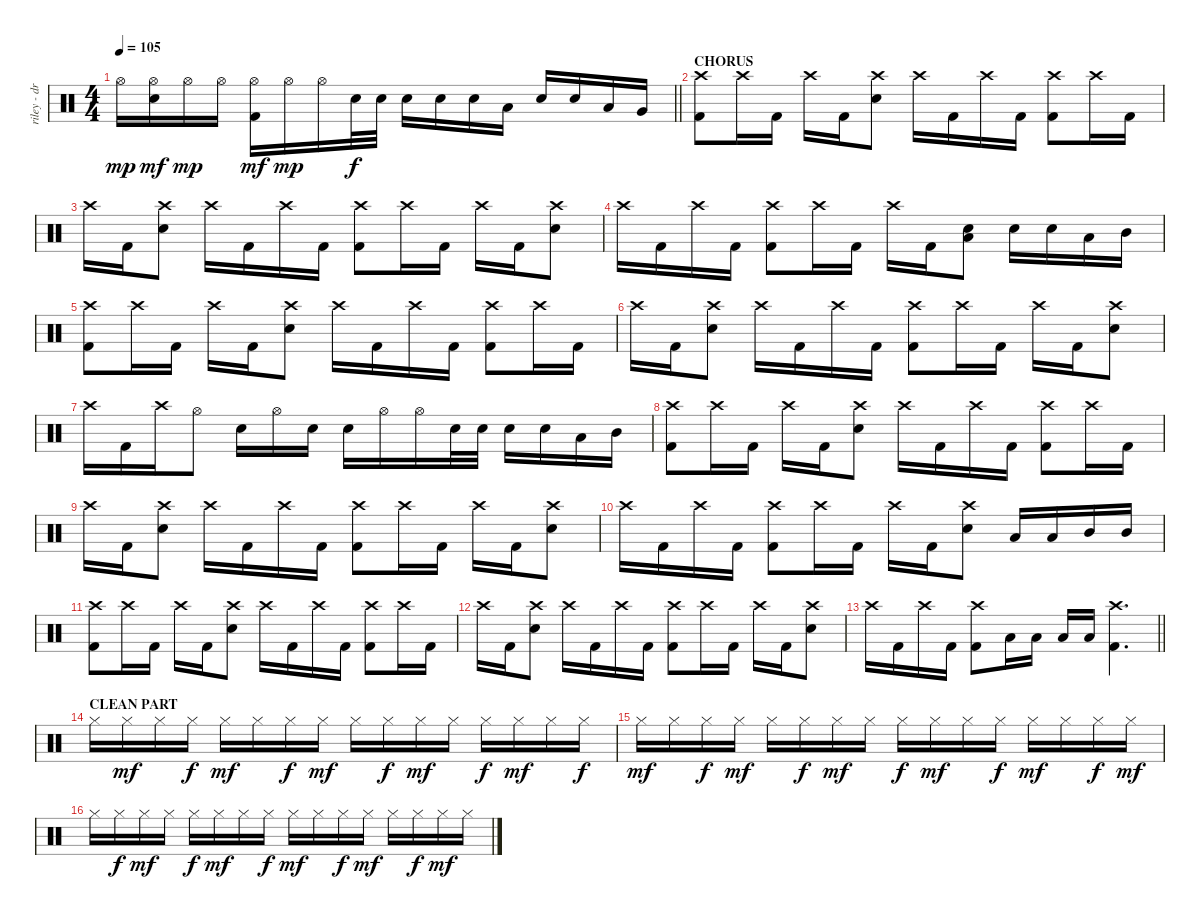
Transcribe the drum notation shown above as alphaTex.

\track ("riley - drums" "riley - dr") {instrument percussion}
\staff {score}
\articulation defaults
\ts (4 4)
\tempo 105
\clef neutral
\barLineRight lightlight
\ks c "Hi-Hat (open)".16{dy mp}
("Electric Snare (hit)" "Hi-Hat (open)").16{dy mf} "Hi-Hat (open)".16{dy mp} "Hi-Hat (open)".16 ("Kick (hit) 2" "Hi-Hat (open)").16{dy mf} "Hi-Hat (open)".16{dy mp} "Hi-Hat (open)".16 "Electric Snare (hit)".32{dy f} "Electric Snare (hit)".32 "Electric Snare (hit)".16 "Electric Snare (hit)".16 "Electric Snare (hit)".16 "Low Tom (hit)".16 "Electric Snare (hit)".16 "Electric Snare (hit)".16 "Low Tom (hit)".16 "Very Low Tom (hit)".16 |
\section ("" "CHORUS")
("Kick (hit) 2" "Crash high (hit)").8 "Crash high (hit)".16 "Kick (hit) 2".16 "Crash high (hit)".16 "Kick (hit) 2".16 ("Electric Snare (hit)" "Crash high (hit)").8 "Crash high (hit)".16 "Kick (hit) 2".16 "Crash high (hit)".16 "Kick (hit) 2".16 ("Kick (hit) 2" "Crash high (hit)").8 "Crash high (hit)".16 "Kick (hit) 2".16 |
"Crash high (hit)".16 "Kick (hit) 2".16 ("Electric Snare (hit)" "Crash high (hit)").8 "Crash high (hit)".16 "Kick (hit) 2".16 "Crash high (hit)".16 "Kick (hit) 2".16 ("Kick (hit) 2" "Crash high (hit)").8 "Crash high (hit)".16 "Kick (hit) 2".16 "Crash high (hit)".16 "Kick (hit) 2".16 ("Electric Snare (hit)" "Crash high (hit)").8 |
"Crash high (hit)".16 "Kick (hit) 2".16 "Crash high (hit)".16 "Kick (hit) 2".16 ("Kick (hit) 2" "Crash high (hit)").8 "Crash high (hit)".16 "Kick (hit) 2".16 "Crash high (hit)".16 "Kick (hit) 2".16 ("Electric Snare (hit)" "Low Floor Tom (hit)").8 "Electric Snare (hit)".16 "Electric Snare (hit)".16 "Low Tom (hit)".16 "Mid Tom (hit)".16 |
("Kick (hit) 2" "Crash high (hit)").8 "Crash high (hit)".16 "Kick (hit) 2".16 "Crash high (hit)".16 "Kick (hit) 2".16 ("Electric Snare (hit)" "Crash high (hit)").8 "Crash high (hit)".16 "Kick (hit) 2".16 "Crash high (hit)".16 "Kick (hit) 2".16 ("Kick (hit) 2" "Crash high (hit)").8 "Crash high (hit)".16 "Kick (hit) 2".16 |
"Crash high (hit)".16 "Kick (hit) 2".16 ("Electric Snare (hit)" "Crash high (hit)").8 "Crash high (hit)".16 "Kick (hit) 2".16 "Crash high (hit)".16 "Kick (hit) 2".16 ("Kick (hit) 2" "Crash high (hit)").8 "Crash high (hit)".16 "Kick (hit) 2".16 "Crash high (hit)".16 "Kick (hit) 2".16 ("Electric Snare (hit)" "Crash high (hit)").8 |
"Crash high (hit)".16 "Kick (hit) 2".16 "Crash high (hit)".16 "Hi-Hat (open)".8 "Electric Snare (hit)".16 "Hi-Hat (open)".16 "Electric Snare (hit)".16 "Electric Snare (hit)".16 "Hi-Hat (open)".16 "Hi-Hat (open)".16 "Electric Snare (hit)".32 "Electric Snare (hit)".32 "Electric Snare (hit)".16 "Electric Snare (hit)".16 "Low Tom (hit)".16 "Mid Tom (hit)".16 |
("Kick (hit) 2" "Crash high (hit)").8 "Crash high (hit)".16 "Kick (hit) 2".16 "Crash high (hit)".16 "Kick (hit) 2".16 ("Electric Snare (hit)" "Crash high (hit)").8 "Crash high (hit)".16 "Kick (hit) 2".16 "Crash high (hit)".16 "Kick (hit) 2".16 ("Kick (hit) 2" "Crash high (hit)").8 "Crash high (hit)".16 "Kick (hit) 2".16 |
"Crash high (hit)".16 "Kick (hit) 2".16 ("Electric Snare (hit)" "Crash high (hit)").8 "Crash high (hit)".16 "Kick (hit) 2".16 "Crash high (hit)".16 "Kick (hit) 2".16 ("Kick (hit) 2" "Crash high (hit)").8 "Crash high (hit)".16 "Kick (hit) 2".16 "Crash high (hit)".16 "Kick (hit) 2".16 ("Electric Snare (hit)" "Crash high (hit)").8 |
"Crash high (hit)".16 "Kick (hit) 2".16 "Crash high (hit)".16 "Kick (hit) 2".16 ("Kick (hit) 2" "Crash high (hit)").8 "Crash high (hit)".16 "Kick (hit) 2".16 "Crash high (hit)".16 "Kick (hit) 2".16 ("Electric Snare (hit)" "Crash high (hit)").8 "Low Tom (hit)".16 "Low Tom (hit)".16 "Mid Tom (hit)".16 "Mid Tom (hit)".16 |
("Kick (hit) 2" "Crash high (hit)").8 "Crash high (hit)".16 "Kick (hit) 2".16 "Crash high (hit)".16 "Kick (hit) 2".16 ("Electric Snare (hit)" "Crash high (hit)").8 "Crash high (hit)".16 "Kick (hit) 2".16 "Crash high (hit)".16 "Kick (hit) 2".16 ("Kick (hit) 2" "Crash high (hit)").8 "Crash high (hit)".16 "Kick (hit) 2".16 |
"Crash high (hit)".16 "Kick (hit) 2".16 ("Electric Snare (hit)" "Crash high (hit)").8 "Crash high (hit)".16 "Kick (hit) 2".16 "Crash high (hit)".16 "Kick (hit) 2".16 ("Kick (hit) 2" "Crash high (hit)").8 "Crash high (hit)".16 "Kick (hit) 2".16 "Crash high (hit)".16 "Kick (hit) 2".16 ("Electric Snare (hit)" "Crash high (hit)").8 |
\barLineRight lightlight "Crash high (hit)".16 "Kick (hit) 2".16 "Crash high (hit)".16 "Kick (hit) 2".16
("Kick (hit) 2" "Crash high (hit)").8 "Low Floor Tom (hit)".16 "Low Floor Tom (hit)".16 "Low Floor Tom (hit)".16 "Low Floor Tom (hit)".16 ("Kick (hit) 2" "Crash high (hit)").4{d} |
\section ("" "CLEAN PART")
"Hi-Hat (closed)".16 "Hi-Hat (closed)".16{dy mf} "Hi-Hat (closed)".16 "Hi-Hat (closed)".16{dy f} "Hi-Hat (closed)".16{dy mf} "Hi-Hat (closed)".16 "Hi-Hat (closed)".16{dy f} "Hi-Hat (closed)".16{dy mf} "Hi-Hat (closed)".16 "Hi-Hat (closed)".16{dy f} "Hi-Hat (closed)".16{dy mf} "Hi-Hat (closed)".16 "Hi-Hat (closed)".16{dy f} "Hi-Hat (closed)".16{dy mf} "Hi-Hat (closed)".16 "Hi-Hat (closed)".16{dy f} |
"Hi-Hat (closed)".16{dy mf} "Hi-Hat (closed)".16 "Hi-Hat (closed)".16{dy f} "Hi-Hat (closed)".16{dy mf} "Hi-Hat (closed)".16 "Hi-Hat (closed)".16{dy f} "Hi-Hat (closed)".16{dy mf} "Hi-Hat (closed)".16 "Hi-Hat (closed)".16{dy f} "Hi-Hat (closed)".16{dy mf} "Hi-Hat (closed)".16 "Hi-Hat (closed)".16{dy f} "Hi-Hat (closed)".16{dy mf} "Hi-Hat (closed)".16 "Hi-Hat (closed)".16{dy f} "Hi-Hat (closed)".16{dy mf} |
"Hi-Hat (closed)".16 "Hi-Hat (closed)".16{dy f} "Hi-Hat (closed)".16{dy mf} "Hi-Hat (closed)".16 "Hi-Hat (closed)".16{dy f} "Hi-Hat (closed)".16{dy mf} "Hi-Hat (closed)".16 "Hi-Hat (closed)".16{dy f} "Hi-Hat (closed)".16{dy mf} "Hi-Hat (closed)".16 "Hi-Hat (closed)".16{dy f} "Hi-Hat (closed)".16{dy mf} "Hi-Hat (closed)".16 "Hi-Hat (closed)".16{dy f} "Hi-Hat (closed)".16{dy mf} "Hi-Hat (closed)".16
